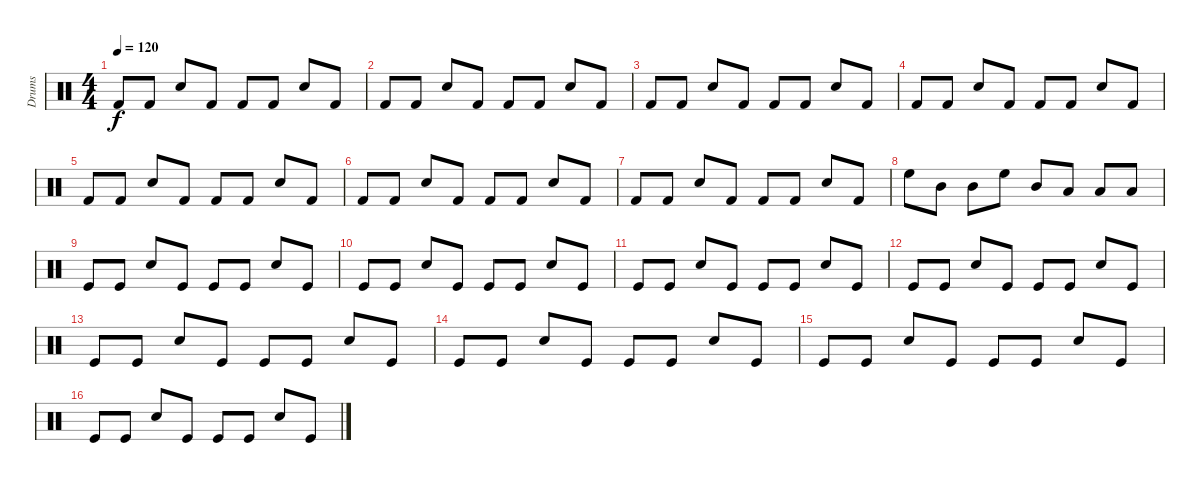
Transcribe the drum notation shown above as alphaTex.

\track ("Drums" "Drums") {instrument percussion}
\staff {score}
\articulation defaults
\ts (4 4)
\tempo 120
\clef neutral
\ks c "Kick (hit) 2".8{dy f} "Kick (hit) 2".8 "Snare (hit) 2".8 "Kick (hit) 2".8 "Kick (hit) 2".8 "Kick (hit) 2".8 "Snare (hit) 2".8 "Kick (hit) 2".8
|
"Kick (hit) 2".8 "Kick (hit) 2".8 "Snare (hit) 2".8 "Kick (hit) 2".8 "Kick (hit) 2".8 "Kick (hit) 2".8 "Snare (hit) 2".8 "Kick (hit) 2".8 |
"Kick (hit) 2".8 "Kick (hit) 2".8 "Snare (hit) 2".8 "Kick (hit) 2".8 "Kick (hit) 2".8 "Kick (hit) 2".8 "Snare (hit) 2".8 "Kick (hit) 2".8 |
"Kick (hit) 2".8 "Kick (hit) 2".8 "Snare (hit) 2".8 "Kick (hit) 2".8 "Kick (hit) 2".8 "Kick (hit) 2".8 "Snare (hit) 2".8 "Kick (hit) 2".8 |
"Kick (hit) 2".8 "Kick (hit) 2".8 "Snare (hit) 2".8 "Kick (hit) 2".8 "Kick (hit) 2".8 "Kick (hit) 2".8 "Snare (hit) 2".8 "Kick (hit) 2".8 |
"Kick (hit) 2".8 "Kick (hit) 2".8 "Snare (hit) 2".8 "Kick (hit) 2".8 "Kick (hit) 2".8 "Kick (hit) 2".8 "Snare (hit) 2".8 "Kick (hit) 2".8 |
"Kick (hit) 2".8 "Kick (hit) 2".8 "Snare (hit) 2".8 "Kick (hit) 2".8 "Kick (hit) 2".8 "Kick (hit) 2".8 "Snare (hit) 2".8 "Kick (hit) 2".8 |
"High Floor Tom (hit)".8 "Mid Tom (hit)".8 "Mid Tom (hit)".8 "High Floor Tom (hit)".8 "Mid Tom (hit)".8 "Low Tom (hit)".8 "Low Tom (hit)".8 "Low Tom (hit)".8 |
"Kick (hit)".8 "Kick (hit)".8 "Snare (hit) 2".8 "Kick (hit)".8 "Kick (hit)".8 "Kick (hit)".8 "Snare (hit) 2".8 "Kick (hit)".8 |
"Kick (hit)".8 "Kick (hit)".8 "Snare (hit) 2".8 "Kick (hit)".8 "Kick (hit)".8 "Kick (hit)".8 "Snare (hit) 2".8 "Kick (hit)".8 |
"Kick (hit)".8 "Kick (hit)".8 "Snare (hit) 2".8 "Kick (hit)".8 "Kick (hit)".8 "Kick (hit)".8 "Snare (hit) 2".8 "Kick (hit)".8 |
"Kick (hit)".8 "Kick (hit)".8 "Snare (hit) 2".8 "Kick (hit)".8 "Kick (hit)".8 "Kick (hit)".8 "Snare (hit) 2".8 "Kick (hit)".8 |
"Kick (hit)".8 "Kick (hit)".8 "Snare (hit) 2".8 "Kick (hit)".8 "Kick (hit)".8 "Kick (hit)".8 "Snare (hit) 2".8 "Kick (hit)".8 |
"Kick (hit)".8 "Kick (hit)".8 "Snare (hit) 2".8 "Kick (hit)".8 "Kick (hit)".8 "Kick (hit)".8 "Snare (hit) 2".8 "Kick (hit)".8 |
"Kick (hit)".8 "Kick (hit)".8 "Snare (hit) 2".8 "Kick (hit)".8 "Kick (hit)".8 "Kick (hit)".8 "Snare (hit) 2".8 "Kick (hit)".8 |
"Kick (hit)".8 "Kick (hit)".8 "Snare (hit) 2".8 "Kick (hit)".8 "Kick (hit)".8 "Kick (hit)".8 "Snare (hit) 2".8 "Kick (hit)".8
